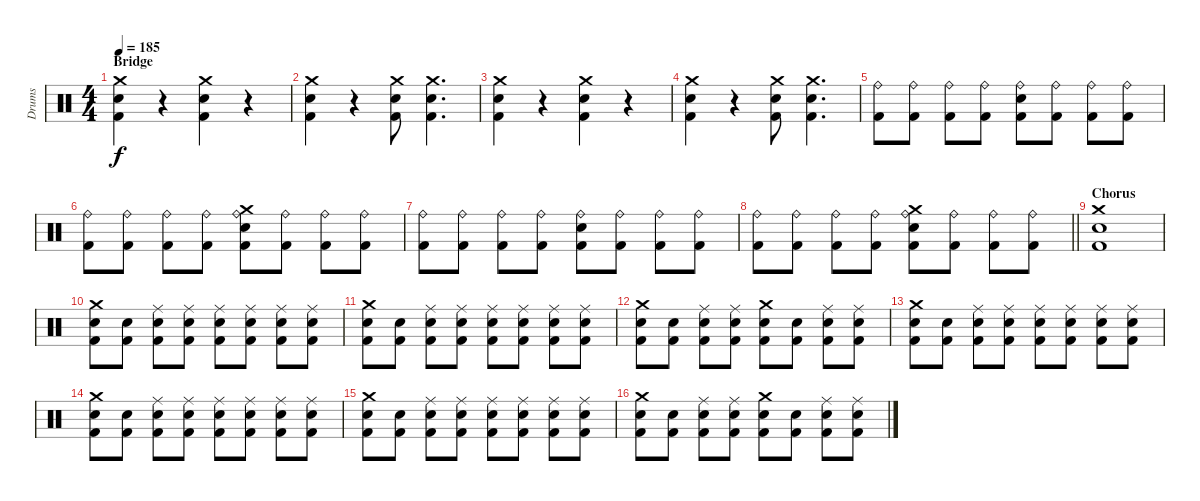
\track ("Drums" "Drums") {instrument percussion}
\staff {score}
\articulation defaults
\ts (4 4)
\section ("" "Bridge")
\tempo 185
\clef neutral
\ks c
("Crash medium (hit)" "Snare (hit) 2" "Kick (hit) 2").4{dy f} r.4 ("Crash medium (hit)" "Snare (hit) 2" "Kick (hit) 2").4 r.4 |
("Crash medium (hit)" "Snare (hit) 2" "Kick (hit) 2").4 r.4 ("Crash medium (hit)" "Snare (hit) 2" "Kick (hit) 2").8 ("Crash medium (hit)" "Snare (hit) 2" "Kick (hit) 2").4{d} |
("Crash medium (hit)" "Snare (hit) 2" "Kick (hit) 2").4 r.4 ("Crash medium (hit)" "Snare (hit) 2" "Kick (hit) 2").4 r.4 |
("Crash medium (hit)" "Snare (hit) 2" "Kick (hit) 2").4 r.4 ("Crash medium (hit)" "Snare (hit) 2" "Kick (hit) 2").8 ("Crash medium (hit)" "Snare (hit) 2" "Kick (hit) 2").4{d} |
("Ride (bell)" "Kick (hit) 2").8 ("Ride (bell)" "Kick (hit) 2").8 ("Ride (bell)" "Kick (hit) 2").8 ("Ride (bell)" "Kick (hit) 2").8 ("Ride (bell)" "Snare (hit) 2" "Kick (hit) 2").8 ("Ride (bell)" "Kick (hit) 2").8 ("Ride (bell)" "Kick (hit) 2").8 ("Ride (bell)" "Kick (hit) 2").8 |
("Ride (bell)" "Kick (hit) 2").8 ("Ride (bell)" "Kick (hit) 2").8 ("Ride (bell)" "Kick (hit) 2").8 ("Ride (bell)" "Kick (hit) 2").8 ("Crash medium (hit)" "Ride (bell)" "Snare (hit) 2" "Kick (hit) 2").8 ("Ride (bell)" "Kick (hit) 2").8 ("Ride (bell)" "Kick (hit) 2").8 ("Ride (bell)" "Kick (hit) 2").8 |
("Ride (bell)" "Kick (hit) 2").8 ("Ride (bell)" "Kick (hit) 2").8 ("Ride (bell)" "Kick (hit) 2").8 ("Ride (bell)" "Kick (hit) 2").8 ("Ride (bell)" "Snare (hit) 2" "Kick (hit) 2").8 ("Ride (bell)" "Kick (hit) 2").8 ("Ride (bell)" "Kick (hit) 2").8 ("Ride (bell)" "Kick (hit) 2").8 |
\barLineRight lightlight
("Ride (bell)" "Kick (hit) 2").8 ("Ride (bell)" "Kick (hit) 2").8 ("Ride (bell)" "Kick (hit) 2").8 ("Ride (bell)" "Kick (hit) 2").8 ("Crash medium (hit)" "Ride (bell)" "Snare (hit) 2" "Kick (hit) 2").8 ("Ride (bell)" "Kick (hit) 2").8 ("Ride (bell)" "Kick (hit) 2").8 ("Ride (bell)" "Kick (hit) 2").8 |
\section ("" "Chorus")
("Crash medium (hit)" "Snare (hit) 2" "Kick (hit) 2").1 |
("Crash medium (hit)" "Snare (hit) 2" "Kick (hit) 2").8 ("Snare (hit) 2" "Kick (hit) 2").8 ("Ride (middle)" "Snare (hit) 2" "Kick (hit) 2").8 ("Ride (middle)" "Snare (hit) 2" "Kick (hit) 2").8 ("Ride (middle)" "Snare (hit) 2" "Kick (hit) 2").8 ("Ride (middle)" "Snare (hit) 2" "Kick (hit) 2").8 ("Ride (middle)" "Snare (hit) 2" "Kick (hit) 2").8 ("Ride (middle)" "Snare (hit) 2" "Kick (hit) 2").8 |
("Crash medium (hit)" "Snare (hit) 2" "Kick (hit) 2").8 ("Snare (hit) 2" "Kick (hit) 2").8 ("Ride (middle)" "Snare (hit) 2" "Kick (hit) 2").8 ("Ride (middle)" "Snare (hit) 2" "Kick (hit) 2").8 ("Ride (middle)" "Snare (hit) 2" "Kick (hit) 2").8 ("Ride (middle)" "Snare (hit) 2" "Kick (hit) 2").8 ("Ride (middle)" "Snare (hit) 2" "Kick (hit) 2").8 ("Ride (middle)" "Snare (hit) 2" "Kick (hit) 2").8 |
("Crash medium (hit)" "Snare (hit) 2" "Kick (hit) 2").8 ("Snare (hit) 2" "Kick (hit) 2").8 ("Ride (middle)" "Snare (hit) 2" "Kick (hit) 2").8 ("Ride (middle)" "Snare (hit) 2" "Kick (hit) 2").8 ("Crash medium (hit)" "Snare (hit) 2" "Kick (hit) 2").8 ("Snare (hit) 2" "Kick (hit) 2").8 ("Ride (middle)" "Snare (hit) 2" "Kick (hit) 2").8 ("Ride (middle)" "Snare (hit) 2" "Kick (hit) 2").8 |
("Crash medium (hit)" "Snare (hit) 2" "Kick (hit) 2").8 ("Snare (hit) 2" "Kick (hit) 2").8 ("Ride (middle)" "Snare (hit) 2" "Kick (hit) 2").8 ("Ride (middle)" "Snare (hit) 2" "Kick (hit) 2").8 ("Ride (middle)" "Snare (hit) 2" "Kick (hit) 2").8 ("Ride (middle)" "Snare (hit) 2" "Kick (hit) 2").8 ("Ride (middle)" "Snare (hit) 2" "Kick (hit) 2").8 ("Ride (middle)" "Snare (hit) 2" "Kick (hit) 2").8 |
("Crash medium (hit)" "Snare (hit) 2" "Kick (hit) 2").8 ("Snare (hit) 2" "Kick (hit) 2").8 ("Ride (middle)" "Snare (hit) 2" "Kick (hit) 2").8 ("Ride (middle)" "Snare (hit) 2" "Kick (hit) 2").8 ("Ride (middle)" "Snare (hit) 2" "Kick (hit) 2").8 ("Ride (middle)" "Snare (hit) 2" "Kick (hit) 2").8 ("Ride (middle)" "Snare (hit) 2" "Kick (hit) 2").8 ("Ride (middle)" "Snare (hit) 2" "Kick (hit) 2").8 |
("Crash medium (hit)" "Snare (hit) 2" "Kick (hit) 2").8 ("Snare (hit) 2" "Kick (hit) 2").8 ("Ride (middle)" "Snare (hit) 2" "Kick (hit) 2").8 ("Ride (middle)" "Snare (hit) 2" "Kick (hit) 2").8 ("Ride (middle)" "Snare (hit) 2" "Kick (hit) 2").8 ("Ride (middle)" "Snare (hit) 2" "Kick (hit) 2").8 ("Ride (middle)" "Snare (hit) 2" "Kick (hit) 2").8 ("Ride (middle)" "Snare (hit) 2" "Kick (hit) 2").8 |
("Crash medium (hit)" "Snare (hit) 2" "Kick (hit) 2").8 ("Snare (hit) 2" "Kick (hit) 2").8 ("Ride (middle)" "Snare (hit) 2" "Kick (hit) 2").8 ("Ride (middle)" "Snare (hit) 2" "Kick (hit) 2").8 ("Crash medium (hit)" "Snare (hit) 2" "Kick (hit) 2").8 ("Snare (hit) 2" "Kick (hit) 2").8 ("Ride (middle)" "Snare (hit) 2" "Kick (hit) 2").8 ("Ride (middle)" "Snare (hit) 2" "Kick (hit) 2").8
